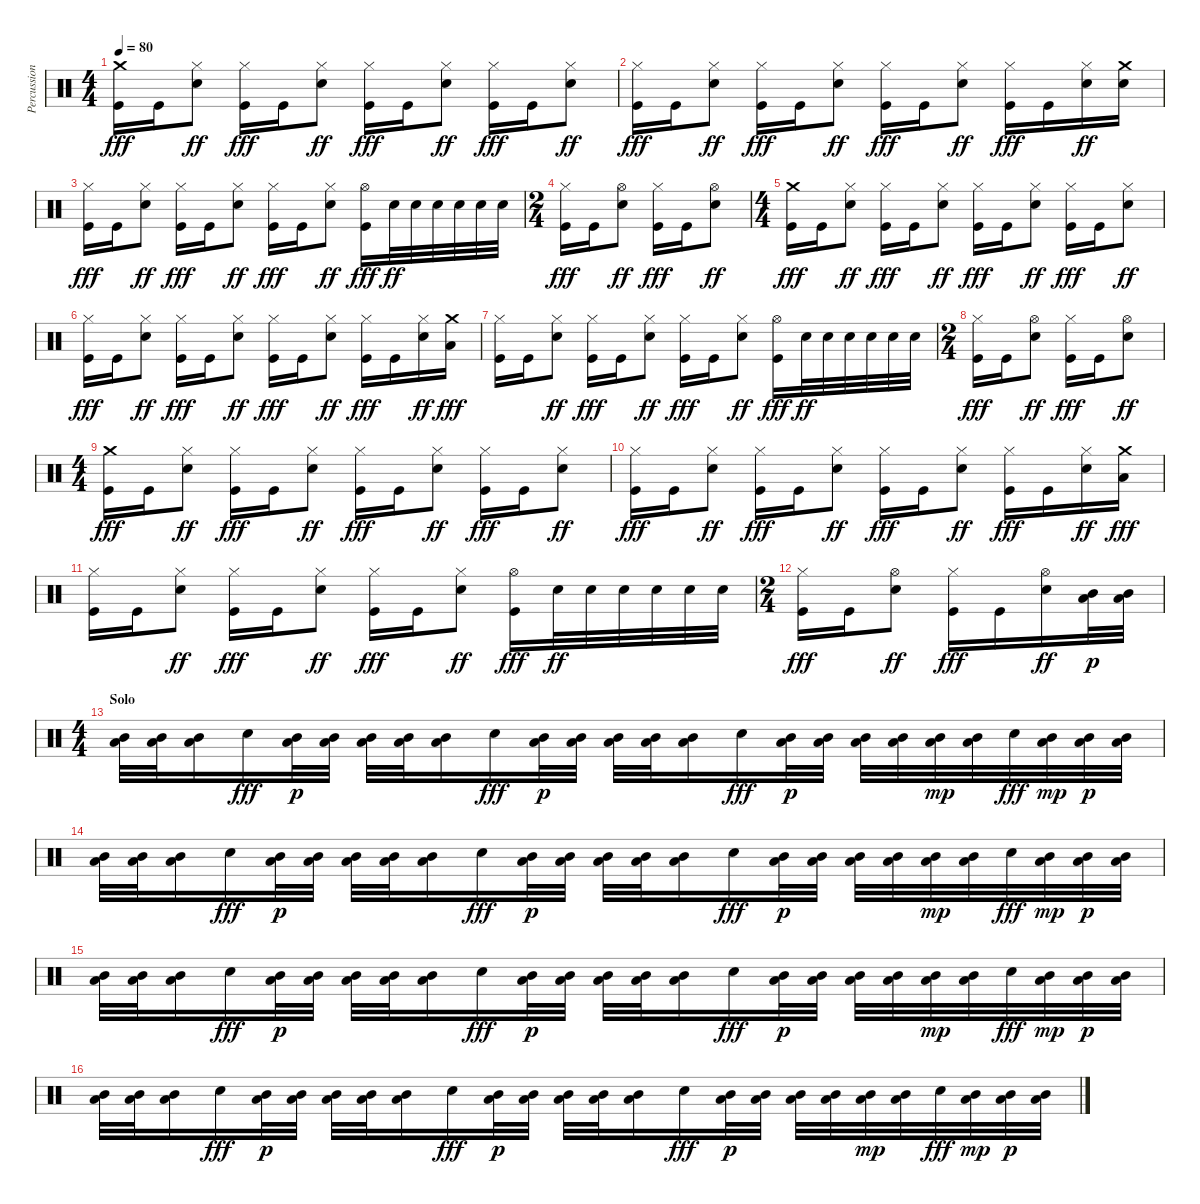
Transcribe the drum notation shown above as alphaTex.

\track ("Percussion" "Percussion") {instrument percussion}
\staff {score}
\articulation defaults
\ts (4 4)
\tempo 80
\clef neutral
\ks c
("Crash medium (hit)" "Kick (hit)").16{dy fff} "Kick (hit)".16 ("Hi-Hat (closed)" "Snare (hit) 2").8{dy ff} ("Hi-Hat (closed)" "Kick (hit)").16{dy fff} "Kick (hit)".16 ("Hi-Hat (closed)" "Snare (hit) 2").8{dy ff} ("Hi-Hat (closed)" "Kick (hit)").16{dy fff} "Kick (hit)".16 ("Hi-Hat (closed)" "Snare (hit) 2").8{dy ff} ("Hi-Hat (closed)" "Kick (hit)").16{dy fff} "Kick (hit)".16 ("Hi-Hat (closed)" "Snare (hit) 2").8{dy ff} |
("Hi-Hat (closed)" "Kick (hit)").16{dy fff} "Kick (hit)".16 ("Hi-Hat (closed)" "Snare (hit) 2").8{dy ff} ("Hi-Hat (closed)" "Kick (hit)").16{dy fff} "Kick (hit)".16 ("Hi-Hat (closed)" "Snare (hit) 2").8{dy ff} ("Hi-Hat (closed)" "Kick (hit)").16{dy fff} "Kick (hit)".16 ("Hi-Hat (closed)" "Snare (hit) 2").8{dy ff} ("Hi-Hat (closed)" "Kick (hit)").16{dy fff} "Kick (hit)".16 ("Hi-Hat (closed)" "Snare (hit) 2").16{dy ff} ("Crash medium (hit)" "Snare (hit) 2").16 |
("Hi-Hat (closed)" "Kick (hit)").16{dy fff} "Kick (hit)".16 ("Hi-Hat (closed)" "Snare (hit) 2").8{dy ff} ("Hi-Hat (closed)" "Kick (hit)").16{dy fff} "Kick (hit)".16 ("Hi-Hat (closed)" "Snare (hit) 2").8{dy ff} ("Hi-Hat (closed)" "Kick (hit)").16{dy fff} "Kick (hit)".16 ("Hi-Hat (closed)" "Snare (hit) 2").8{dy ff} ("Hi-Hat (open)" "Kick (hit)").16{dy fff} "Snare (hit) 2".32{dy ff} "Snare (hit) 2".32 "Snare (hit) 2".32 "Snare (hit) 2".32 "Snare (hit) 2".32 "Snare (hit) 2".32 |
\ts (2 4)
("Hi-Hat (closed)" "Kick (hit)").16{dy fff} "Kick (hit)".16 ("Hi-Hat (open)" "Snare (hit) 2").8{dy ff} ("Hi-Hat (closed)" "Kick (hit)").16{dy fff} "Kick (hit)".16 ("Hi-Hat (open)" "Snare (hit) 2").8{dy ff} |
\ts (4 4)
("Crash medium (hit)" "Kick (hit)").16{dy fff} "Kick (hit)".16 ("Hi-Hat (closed)" "Snare (hit) 2").8{dy ff} ("Hi-Hat (closed)" "Kick (hit)").16{dy fff} "Kick (hit)".16 ("Hi-Hat (closed)" "Snare (hit) 2").8{dy ff} ("Hi-Hat (closed)" "Kick (hit)").16{dy fff} "Kick (hit)".16 ("Hi-Hat (closed)" "Snare (hit) 2").8{dy ff} ("Hi-Hat (closed)" "Kick (hit)").16{dy fff} "Kick (hit)".16 ("Hi-Hat (closed)" "Snare (hit) 2").8{dy ff} |
("Hi-Hat (closed)" "Kick (hit)").16{dy fff} "Kick (hit)".16 ("Hi-Hat (closed)" "Snare (hit) 2").8{dy ff} ("Hi-Hat (closed)" "Kick (hit)").16{dy fff} "Kick (hit)".16 ("Hi-Hat (closed)" "Snare (hit) 2").8{dy ff} ("Hi-Hat (closed)" "Kick (hit)").16{dy fff} "Kick (hit)".16 ("Hi-Hat (closed)" "Snare (hit) 2").8{dy ff} ("Hi-Hat (closed)" "Kick (hit)").16{dy fff} "Kick (hit)".16 ("Hi-Hat (closed)" "Snare (hit) 2").16{dy ff} ("Crash medium (hit)" "Low Tom (hit)").16{dy fff} |
("Hi-Hat (closed)" "Kick (hit)").16 "Kick (hit)".16 ("Hi-Hat (closed)" "Snare (hit) 2").8{dy ff} ("Hi-Hat (closed)" "Kick (hit)").16{dy fff} "Kick (hit)".16 ("Hi-Hat (closed)" "Snare (hit) 2").8{dy ff} ("Hi-Hat (closed)" "Kick (hit)").16{dy fff} "Kick (hit)".16 ("Hi-Hat (closed)" "Snare (hit) 2").8{dy ff} ("Hi-Hat (open)" "Kick (hit)").16{dy fff} "Snare (hit) 2".32{dy ff} "Snare (hit) 2".32 "Snare (hit) 2".32 "Snare (hit) 2".32 "Snare (hit) 2".32 "Snare (hit) 2".32 |
\ts (2 4)
("Hi-Hat (closed)" "Kick (hit)").16{dy fff} "Kick (hit)".16 ("Hi-Hat (open)" "Snare (hit) 2").8{dy ff} ("Hi-Hat (closed)" "Kick (hit)").16{dy fff} "Kick (hit)".16 ("Hi-Hat (open)" "Snare (hit) 2").8{dy ff} |
\ts (4 4)
("Crash medium (hit)" "Kick (hit)").16{dy fff} "Kick (hit)".16 ("Hi-Hat (closed)" "Snare (hit) 2").8{dy ff} ("Hi-Hat (closed)" "Kick (hit)").16{dy fff} "Kick (hit)".16 ("Hi-Hat (closed)" "Snare (hit) 2").8{dy ff} ("Hi-Hat (closed)" "Kick (hit)").16{dy fff} "Kick (hit)".16 ("Hi-Hat (closed)" "Snare (hit) 2").8{dy ff} ("Hi-Hat (closed)" "Kick (hit)").16{dy fff} "Kick (hit)".16 ("Hi-Hat (closed)" "Snare (hit) 2").8{dy ff} |
("Hi-Hat (closed)" "Kick (hit)").16{dy fff} "Kick (hit)".16 ("Hi-Hat (closed)" "Snare (hit) 2").8{dy ff} ("Hi-Hat (closed)" "Kick (hit)").16{dy fff} "Kick (hit)".16 ("Hi-Hat (closed)" "Snare (hit) 2").8{dy ff} ("Hi-Hat (closed)" "Kick (hit)").16{dy fff} "Kick (hit)".16 ("Hi-Hat (closed)" "Snare (hit) 2").8{dy ff} ("Hi-Hat (closed)" "Kick (hit)").16{dy fff} "Kick (hit)".16 ("Hi-Hat (closed)" "Snare (hit) 2").16{dy ff} ("Crash medium (hit)" "Low Tom (hit)").16{dy fff} |
("Hi-Hat (closed)" "Kick (hit)").16 "Kick (hit)".16 ("Hi-Hat (closed)" "Snare (hit) 2").8{dy ff} ("Hi-Hat (closed)" "Kick (hit)").16{dy fff} "Kick (hit)".16 ("Hi-Hat (closed)" "Snare (hit) 2").8{dy ff} ("Hi-Hat (closed)" "Kick (hit)").16{dy fff} "Kick (hit)".16 ("Hi-Hat (closed)" "Snare (hit) 2").8{dy ff} ("Hi-Hat (open)" "Kick (hit)").16{dy fff} "Snare (hit) 2".32{dy ff} "Snare (hit) 2".32 "Snare (hit) 2".32 "Snare (hit) 2".32 "Snare (hit) 2".32 "Snare (hit) 2".32 |
\ts (2 4)
("Hi-Hat (closed)" "Kick (hit)").16{dy fff} "Kick (hit)".16 ("Hi-Hat (open)" "Snare (hit) 2").8{dy ff} ("Hi-Hat (closed)" "Kick (hit)").16{dy fff} "Kick (hit)".16 ("Hi-Hat (open)" "Snare (hit) 2").16{dy ff} ("Mid Tom (hit)" "Low Tom (hit)").32{dy p} ("Mid Tom (hit)" "Low Tom (hit)").32 |
\ts (4 4)
\section ("" "Solo")
("Mid Tom (hit)" "Low Tom (hit)").32 ("Mid Tom (hit)" "Low Tom (hit)").32 ("Mid Tom (hit)" "Low Tom (hit)").16 "Snare (hit) 2".16{dy fff} ("Mid Tom (hit)" "Low Tom (hit)").32{dy p} ("Mid Tom (hit)" "Low Tom (hit)").32 ("Mid Tom (hit)" "Low Tom (hit)").32 ("Mid Tom (hit)" "Low Tom (hit)").32 ("Mid Tom (hit)" "Low Tom (hit)").16 "Snare (hit) 2".16{dy fff} ("Mid Tom (hit)" "Low Tom (hit)").32{dy p} ("Mid Tom (hit)" "Low Tom (hit)").32 ("Mid Tom (hit)" "Low Tom (hit)").32 ("Mid Tom (hit)" "Low Tom (hit)").32 ("Mid Tom (hit)" "Low Tom (hit)").16 "Snare (hit) 2".16{dy fff} ("Mid Tom (hit)" "Low Tom (hit)").32{dy p} ("Mid Tom (hit)" "Low Tom (hit)").32 ("Mid Tom (hit)" "Low Tom (hit)").32 ("Mid Tom (hit)" "Low Tom (hit)").32 ("Mid Tom (hit)" "Low Tom (hit)").32{dy mp} ("Mid Tom (hit)" "Low Tom (hit)").32 "Snare (hit) 2".32{dy fff} ("Mid Tom (hit)" "Low Tom (hit)").32{dy mp} ("Mid Tom (hit)" "Low Tom (hit)").32{dy p} ("Mid Tom (hit)" "Low Tom (hit)").32 |
("Mid Tom (hit)" "Low Tom (hit)").32 ("Mid Tom (hit)" "Low Tom (hit)").32 ("Mid Tom (hit)" "Low Tom (hit)").16 "Snare (hit) 2".16{dy fff} ("Mid Tom (hit)" "Low Tom (hit)").32{dy p} ("Mid Tom (hit)" "Low Tom (hit)").32 ("Mid Tom (hit)" "Low Tom (hit)").32 ("Mid Tom (hit)" "Low Tom (hit)").32 ("Mid Tom (hit)" "Low Tom (hit)").16 "Snare (hit) 2".16{dy fff} ("Mid Tom (hit)" "Low Tom (hit)").32{dy p} ("Mid Tom (hit)" "Low Tom (hit)").32 ("Mid Tom (hit)" "Low Tom (hit)").32 ("Mid Tom (hit)" "Low Tom (hit)").32 ("Mid Tom (hit)" "Low Tom (hit)").16 "Snare (hit) 2".16{dy fff} ("Mid Tom (hit)" "Low Tom (hit)").32{dy p} ("Mid Tom (hit)" "Low Tom (hit)").32 ("Mid Tom (hit)" "Low Tom (hit)").32 ("Mid Tom (hit)" "Low Tom (hit)").32 ("Mid Tom (hit)" "Low Tom (hit)").32{dy mp} ("Mid Tom (hit)" "Low Tom (hit)").32 "Snare (hit) 2".32{dy fff} ("Mid Tom (hit)" "Low Tom (hit)").32{dy mp} ("Mid Tom (hit)" "Low Tom (hit)").32{dy p} ("Mid Tom (hit)" "Low Tom (hit)").32 |
("Mid Tom (hit)" "Low Tom (hit)").32 ("Mid Tom (hit)" "Low Tom (hit)").32 ("Mid Tom (hit)" "Low Tom (hit)").16 "Snare (hit) 2".16{dy fff} ("Mid Tom (hit)" "Low Tom (hit)").32{dy p} ("Mid Tom (hit)" "Low Tom (hit)").32 ("Mid Tom (hit)" "Low Tom (hit)").32 ("Mid Tom (hit)" "Low Tom (hit)").32 ("Mid Tom (hit)" "Low Tom (hit)").16 "Snare (hit) 2".16{dy fff} ("Mid Tom (hit)" "Low Tom (hit)").32{dy p} ("Mid Tom (hit)" "Low Tom (hit)").32 ("Mid Tom (hit)" "Low Tom (hit)").32 ("Mid Tom (hit)" "Low Tom (hit)").32 ("Mid Tom (hit)" "Low Tom (hit)").16 "Snare (hit) 2".16{dy fff} ("Mid Tom (hit)" "Low Tom (hit)").32{dy p} ("Mid Tom (hit)" "Low Tom (hit)").32 ("Mid Tom (hit)" "Low Tom (hit)").32 ("Mid Tom (hit)" "Low Tom (hit)").32 ("Mid Tom (hit)" "Low Tom (hit)").32{dy mp} ("Mid Tom (hit)" "Low Tom (hit)").32 "Snare (hit) 2".32{dy fff} ("Mid Tom (hit)" "Low Tom (hit)").32{dy mp} ("Mid Tom (hit)" "Low Tom (hit)").32{dy p} ("Mid Tom (hit)" "Low Tom (hit)").32 |
("Mid Tom (hit)" "Low Tom (hit)").32 ("Mid Tom (hit)" "Low Tom (hit)").32 ("Mid Tom (hit)" "Low Tom (hit)").16 "Snare (hit) 2".16{dy fff} ("Mid Tom (hit)" "Low Tom (hit)").32{dy p} ("Mid Tom (hit)" "Low Tom (hit)").32 ("Mid Tom (hit)" "Low Tom (hit)").32 ("Mid Tom (hit)" "Low Tom (hit)").32 ("Mid Tom (hit)" "Low Tom (hit)").16 "Snare (hit) 2".16{dy fff} ("Mid Tom (hit)" "Low Tom (hit)").32{dy p} ("Mid Tom (hit)" "Low Tom (hit)").32 ("Mid Tom (hit)" "Low Tom (hit)").32 ("Mid Tom (hit)" "Low Tom (hit)").32 ("Mid Tom (hit)" "Low Tom (hit)").16 "Snare (hit) 2".16{dy fff} ("Mid Tom (hit)" "Low Tom (hit)").32{dy p} ("Mid Tom (hit)" "Low Tom (hit)").32 ("Mid Tom (hit)" "Low Tom (hit)").32 ("Mid Tom (hit)" "Low Tom (hit)").32 ("Mid Tom (hit)" "Low Tom (hit)").32{dy mp} ("Mid Tom (hit)" "Low Tom (hit)").32 "Snare (hit) 2".32{dy fff} ("Mid Tom (hit)" "Low Tom (hit)").32{dy mp} ("Mid Tom (hit)" "Low Tom (hit)").32{dy p} ("Mid Tom (hit)" "Low Tom (hit)").32
